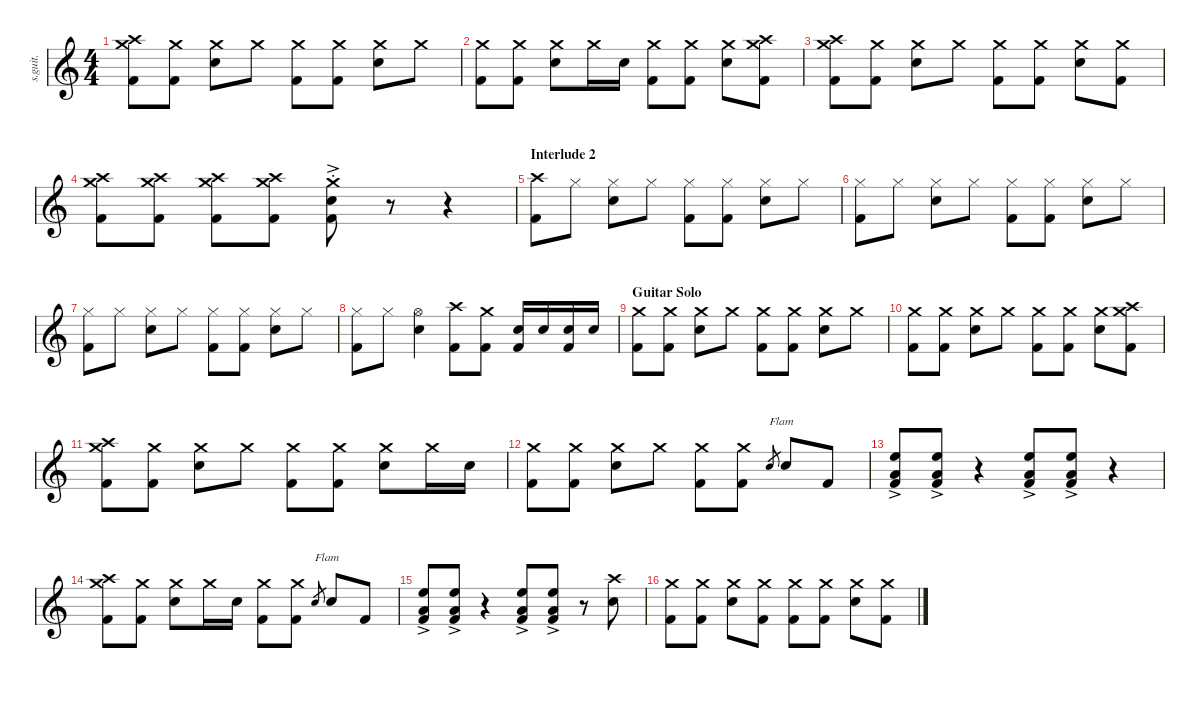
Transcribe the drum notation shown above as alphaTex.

\defaultSystemsLayout 4
\hideDynamics
\bracketExtendMode nobrackets
\track ("Tre Cool" "s.guit.") {instrument percussion}
\staff {score}
\articulation defaults
\ts (4 4)
\tempo (84 hide)
\clef g2
\ks c
("Crash medium (hit)" "Crash high (hit)" "Kick (hit) 2").8{lyrics (0 "") lyrics (1 "") lyrics (2 "") lyrics (3 "") lyrics (4 "") dy f} ("Crash medium (hit)" "Kick (hit) 2").8{lyrics (0 "") lyrics (1 "") lyrics (2 "") lyrics (3 "") lyrics (4 "")} ("Crash medium (hit)" "Snare (hit) 2").8{lyrics (0 "") lyrics (1 "") lyrics (2 "") lyrics (3 "") lyrics (4 "")} "Crash medium (hit)".8{lyrics (0 "") lyrics (1 "") lyrics (2 "") lyrics (3 "") lyrics (4 "")} ("Crash medium (hit)" "Kick (hit) 2").8{lyrics (0 "") lyrics (1 "") lyrics (2 "") lyrics (3 "") lyrics (4 "")} ("Crash medium (hit)" "Kick (hit) 2").8{lyrics (0 "") lyrics (1 "") lyrics (2 "") lyrics (3 "") lyrics (4 "")} ("Crash medium (hit)" "Snare (hit) 2").8{lyrics (0 "") lyrics (1 "") lyrics (2 "") lyrics (3 "") lyrics (4 "")} "Crash medium (hit)".8{lyrics (0 "") lyrics (1 "") lyrics (2 "") lyrics (3 "") lyrics (4 "")} |
("Crash medium (hit)" "Kick (hit) 2").8{lyrics (0 "") lyrics (1 "") lyrics (2 "") lyrics (3 "") lyrics (4 "")} ("Crash medium (hit)" "Kick (hit) 2").8{lyrics (0 "") lyrics (1 "") lyrics (2 "") lyrics (3 "") lyrics (4 "")} ("Crash medium (hit)" "Snare (hit) 2").8{lyrics (0 "") lyrics (1 "") lyrics (2 "") lyrics (3 "") lyrics (4 "")} "Crash medium (hit)".16{lyrics (0 "") lyrics (1 "") lyrics (2 "") lyrics (3 "") lyrics (4 "")} "Snare (hit) 2".16{lyrics (0 "") lyrics (1 "") lyrics (2 "") lyrics (3 "") lyrics (4 "")} ("Crash medium (hit)" "Kick (hit) 2").8{lyrics (0 "") lyrics (1 "") lyrics (2 "") lyrics (3 "") lyrics (4 "")} ("Crash medium (hit)" "Kick (hit) 2").8{lyrics (0 "") lyrics (1 "") lyrics (2 "") lyrics (3 "") lyrics (4 "")} ("Crash medium (hit)" "Snare (hit) 2").8{lyrics (0 "") lyrics (1 "") lyrics (2 "") lyrics (3 "") lyrics (4 "")} ("Crash medium (hit)" "Crash high (hit)" "Kick (hit) 2").8{lyrics (0 "") lyrics (1 "") lyrics (2 "") lyrics (3 "") lyrics (4 "")} |
("Crash medium (hit)" "Crash high (hit)" "Kick (hit) 2").8{lyrics (0 "") lyrics (1 "") lyrics (2 "") lyrics (3 "") lyrics (4 "")} ("Crash medium (hit)" "Kick (hit) 2").8{lyrics (0 "") lyrics (1 "") lyrics (2 "") lyrics (3 "") lyrics (4 "")} ("Crash medium (hit)" "Snare (hit) 2").8{lyrics (0 "") lyrics (1 "") lyrics (2 "") lyrics (3 "") lyrics (4 "")} "Crash medium (hit)".8{lyrics (0 "") lyrics (1 "") lyrics (2 "") lyrics (3 "") lyrics (4 "")} ("Crash medium (hit)" "Kick (hit) 2").8{lyrics (0 "") lyrics (1 "") lyrics (2 "") lyrics (3 "") lyrics (4 "")} ("Crash medium (hit)" "Kick (hit) 2").8{lyrics (0 "") lyrics (1 "") lyrics (2 "") lyrics (3 "") lyrics (4 "")} ("Crash medium (hit)" "Snare (hit) 2").8{lyrics (0 "") lyrics (1 "") lyrics (2 "") lyrics (3 "") lyrics (4 "")} ("Crash medium (hit)" "Kick (hit) 2").8{lyrics (0 "") lyrics (1 "") lyrics (2 "") lyrics (3 "") lyrics (4 "")} |
("Kick (hit) 2" "Crash medium (hit)" "Crash high (hit)").8{lyrics (0 "") lyrics (1 "") lyrics (2 "") lyrics (3 "") lyrics (4 "")} ("Kick (hit) 2" "Crash medium (hit)" "Crash high (hit)").8{lyrics (0 "") lyrics (1 "") lyrics (2 "") lyrics (3 "") lyrics (4 "")} ("Kick (hit) 2" "Crash medium (hit)" "Crash high (hit)").8{lyrics (0 "") lyrics (1 "") lyrics (2 "") lyrics (3 "") lyrics (4 "")} ("Kick (hit) 2" "Crash medium (hit)" "Crash high (hit)").8{lyrics (0 "") lyrics (1 "") lyrics (2 "") lyrics (3 "") lyrics (4 "")} ("Snare (hit) 2" "Kick (hit) 2" "Crash medium (hit)"{ac st}).8{lyrics (0 "") lyrics (1 "") lyrics (2 "") lyrics (3 "") lyrics (4 "")} r.8 r.4 |
\section ("" "Interlude 2")
("Crash high (hit)" "Kick (hit) 2").8{lyrics (0 "") lyrics (1 "") lyrics (2 "") lyrics (3 "") lyrics (4 "")} "Hi-Hat (closed)".8{lyrics (0 "") lyrics (1 "") lyrics (2 "") lyrics (3 "") lyrics (4 "")} ("Hi-Hat (closed)" "Snare (hit) 2").8{lyrics (0 "") lyrics (1 "") lyrics (2 "") lyrics (3 "") lyrics (4 "")} "Hi-Hat (closed)".8{lyrics (0 "") lyrics (1 "") lyrics (2 "") lyrics (3 "") lyrics (4 "")} ("Hi-Hat (closed)" "Kick (hit) 2").8{lyrics (0 "") lyrics (1 "") lyrics (2 "") lyrics (3 "") lyrics (4 "")} ("Hi-Hat (closed)" "Kick (hit) 2").8{lyrics (0 "") lyrics (1 "") lyrics (2 "") lyrics (3 "") lyrics (4 "")} ("Hi-Hat (closed)" "Snare (hit) 2").8{lyrics (0 "") lyrics (1 "") lyrics (2 "") lyrics (3 "") lyrics (4 "")} "Hi-Hat (closed)".8{lyrics (0 "") lyrics (1 "") lyrics (2 "") lyrics (3 "") lyrics (4 "")} |
("Hi-Hat (closed)" "Kick (hit) 2").8{lyrics (0 "") lyrics (1 "") lyrics (2 "") lyrics (3 "") lyrics (4 "")} "Hi-Hat (closed)".8{lyrics (0 "") lyrics (1 "") lyrics (2 "") lyrics (3 "") lyrics (4 "")} ("Hi-Hat (closed)" "Snare (hit) 2").8{lyrics (0 "") lyrics (1 "") lyrics (2 "") lyrics (3 "") lyrics (4 "")} "Hi-Hat (closed)".8{lyrics (0 "") lyrics (1 "") lyrics (2 "") lyrics (3 "") lyrics (4 "")} ("Hi-Hat (closed)" "Kick (hit) 2").8{lyrics (0 "") lyrics (1 "") lyrics (2 "") lyrics (3 "") lyrics (4 "")} ("Hi-Hat (closed)" "Kick (hit) 2").8{lyrics (0 "") lyrics (1 "") lyrics (2 "") lyrics (3 "") lyrics (4 "")} ("Hi-Hat (closed)" "Snare (hit) 2").8{lyrics (0 "") lyrics (1 "") lyrics (2 "") lyrics (3 "") lyrics (4 "")} "Hi-Hat (closed)".8{lyrics (0 "") lyrics (1 "") lyrics (2 "") lyrics (3 "") lyrics (4 "")} |
("Hi-Hat (closed)" "Kick (hit) 2").8{lyrics (0 "") lyrics (1 "") lyrics (2 "") lyrics (3 "") lyrics (4 "")} "Hi-Hat (closed)".8{lyrics (0 "") lyrics (1 "") lyrics (2 "") lyrics (3 "") lyrics (4 "")} ("Hi-Hat (closed)" "Snare (hit) 2").8{lyrics (0 "") lyrics (1 "") lyrics (2 "") lyrics (3 "") lyrics (4 "")} "Hi-Hat (closed)".8{lyrics (0 "") lyrics (1 "") lyrics (2 "") lyrics (3 "") lyrics (4 "")} ("Hi-Hat (closed)" "Kick (hit) 2").8{lyrics (0 "") lyrics (1 "") lyrics (2 "") lyrics (3 "") lyrics (4 "")} ("Hi-Hat (closed)" "Kick (hit) 2").8{lyrics (0 "") lyrics (1 "") lyrics (2 "") lyrics (3 "") lyrics (4 "")} ("Hi-Hat (closed)" "Snare (hit) 2").8{lyrics (0 "") lyrics (1 "") lyrics (2 "") lyrics (3 "") lyrics (4 "")} "Hi-Hat (closed)".8{lyrics (0 "") lyrics (1 "") lyrics (2 "") lyrics (3 "") lyrics (4 "")} |
("Hi-Hat (closed)" "Kick (hit) 2").8{lyrics (0 "") lyrics (1 "") lyrics (2 "") lyrics (3 "") lyrics (4 "")} "Hi-Hat (closed)".8{lyrics (0 "") lyrics (1 "") lyrics (2 "") lyrics (3 "") lyrics (4 "")} ("Hi-Hat (open)" "Snare (hit) 2").4{lyrics (0 "") lyrics (1 "") lyrics (2 "") lyrics (3 "") lyrics (4 "")} ("Crash high (hit)" "Kick (hit) 2").8{lyrics (0 "") lyrics (1 "") lyrics (2 "") lyrics (3 "") lyrics (4 "")} ("Crash medium (hit)" "Kick (hit) 2").8{lyrics (0 "") lyrics (1 "") lyrics (2 "") lyrics (3 "") lyrics (4 "")} ("Snare (hit) 2" "Kick (hit) 2").16{lyrics (0 "") lyrics (1 "") lyrics (2 "") lyrics (3 "") lyrics (4 "")} "Snare (hit) 2".16{lyrics (0 "") lyrics (1 "") lyrics (2 "") lyrics (3 "") lyrics (4 "")} ("Snare (hit) 2" "Kick (hit) 2").16{lyrics (0 "") lyrics (1 "") lyrics (2 "") lyrics (3 "") lyrics (4 "")} "Snare (hit) 2".16{lyrics (0 "") lyrics (1 "") lyrics (2 "") lyrics (3 "") lyrics (4 "")} |
\section ("" "Guitar Solo")
("Crash medium (hit)" "Kick (hit) 2").8{lyrics (0 "") lyrics (1 "") lyrics (2 "") lyrics (3 "") lyrics (4 "")} ("Crash medium (hit)" "Kick (hit) 2").8{lyrics (0 "") lyrics (1 "") lyrics (2 "") lyrics (3 "") lyrics (4 "")} ("Crash medium (hit)" "Snare (hit) 2").8{lyrics (0 "") lyrics (1 "") lyrics (2 "") lyrics (3 "") lyrics (4 "")} "Crash medium (hit)".8{lyrics (0 "") lyrics (1 "") lyrics (2 "") lyrics (3 "") lyrics (4 "")} ("Crash medium (hit)" "Kick (hit) 2").8{lyrics (0 "") lyrics (1 "") lyrics (2 "") lyrics (3 "") lyrics (4 "")} ("Crash medium (hit)" "Kick (hit) 2").8{lyrics (0 "") lyrics (1 "") lyrics (2 "") lyrics (3 "") lyrics (4 "")} ("Crash medium (hit)" "Snare (hit) 2").8{lyrics (0 "") lyrics (1 "") lyrics (2 "") lyrics (3 "") lyrics (4 "")} "Crash medium (hit)".8{lyrics (0 "") lyrics (1 "") lyrics (2 "") lyrics (3 "") lyrics (4 "")} |
("Crash medium (hit)" "Kick (hit) 2").8{lyrics (0 "") lyrics (1 "") lyrics (2 "") lyrics (3 "") lyrics (4 "")} ("Crash medium (hit)" "Kick (hit) 2").8{lyrics (0 "") lyrics (1 "") lyrics (2 "") lyrics (3 "") lyrics (4 "")} ("Crash medium (hit)" "Snare (hit) 2").8{lyrics (0 "") lyrics (1 "") lyrics (2 "") lyrics (3 "") lyrics (4 "")} "Crash medium (hit)".8{lyrics (0 "") lyrics (1 "") lyrics (2 "") lyrics (3 "") lyrics (4 "")} ("Crash medium (hit)" "Kick (hit) 2").8{lyrics (0 "") lyrics (1 "") lyrics (2 "") lyrics (3 "") lyrics (4 "")} ("Crash medium (hit)" "Kick (hit) 2").8{lyrics (0 "") lyrics (1 "") lyrics (2 "") lyrics (3 "") lyrics (4 "")} ("Crash medium (hit)" "Snare (hit) 2").8{lyrics (0 "") lyrics (1 "") lyrics (2 "") lyrics (3 "") lyrics (4 "")} ("Crash medium (hit)" "Crash high (hit)" "Kick (hit) 2").8{lyrics (0 "") lyrics (1 "") lyrics (2 "") lyrics (3 "") lyrics (4 "")} |
("Crash medium (hit)" "Crash high (hit)" "Kick (hit) 2").8{lyrics (0 "") lyrics (1 "") lyrics (2 "") lyrics (3 "") lyrics (4 "")} ("Crash medium (hit)" "Kick (hit) 2").8{lyrics (0 "") lyrics (1 "") lyrics (2 "") lyrics (3 "") lyrics (4 "")} ("Crash medium (hit)" "Snare (hit) 2").8{lyrics (0 "") lyrics (1 "") lyrics (2 "") lyrics (3 "") lyrics (4 "")} "Crash medium (hit)".8{lyrics (0 "") lyrics (1 "") lyrics (2 "") lyrics (3 "") lyrics (4 "")} ("Crash medium (hit)" "Kick (hit) 2").8{lyrics (0 "") lyrics (1 "") lyrics (2 "") lyrics (3 "") lyrics (4 "")} ("Crash medium (hit)" "Kick (hit) 2").8{lyrics (0 "") lyrics (1 "") lyrics (2 "") lyrics (3 "") lyrics (4 "")} ("Crash medium (hit)" "Snare (hit) 2").8{lyrics (0 "") lyrics (1 "") lyrics (2 "") lyrics (3 "") lyrics (4 "")} "Crash medium (hit)".16{lyrics (0 "") lyrics (1 "") lyrics (2 "") lyrics (3 "") lyrics (4 "")} "Snare (hit) 2".16{lyrics (0 "") lyrics (1 "") lyrics (2 "") lyrics (3 "") lyrics (4 "")} |
("Crash medium (hit)" "Kick (hit) 2").8{lyrics (0 "") lyrics (1 "") lyrics (2 "") lyrics (3 "") lyrics (4 "")} ("Crash medium (hit)" "Kick (hit) 2").8{lyrics (0 "") lyrics (1 "") lyrics (2 "") lyrics (3 "") lyrics (4 "")} ("Crash medium (hit)" "Snare (hit) 2").8{lyrics (0 "") lyrics (1 "") lyrics (2 "") lyrics (3 "") lyrics (4 "")} "Crash medium (hit)".8{lyrics (0 "") lyrics (1 "") lyrics (2 "") lyrics (3 "") lyrics (4 "")} ("Crash medium (hit)" "Kick (hit) 2").8{lyrics (0 "") lyrics (1 "") lyrics (2 "") lyrics (3 "") lyrics (4 "")} ("Crash medium (hit)" "Kick (hit) 2").8{lyrics (0 "") lyrics (1 "") lyrics (2 "") lyrics (3 "") lyrics (4 "")} "Electric Snare (hit)".8{txt "Flam" lyrics (0 "") lyrics (1 "") lyrics (2 "") lyrics (3 "") lyrics (4 "") gr} "Snare (hit) 2".8{lyrics (0 "") lyrics (1 "") lyrics (2 "") lyrics (3 "") lyrics (4 "")} "Kick (hit) 2".8{lyrics (0 "") lyrics (1 "") lyrics (2 "") lyrics (3 "") lyrics (4 "")} |
("High Floor Tom (hit)"{ac} "Low Tom (hit)"{ac} "Kick (hit) 2"{ac}).8{lyrics (0 "") lyrics (1 "") lyrics (2 "") lyrics (3 "") lyrics (4 "")} ("High Floor Tom (hit)"{ac} "Low Tom (hit)"{ac} "Kick (hit) 2"{ac}).8{lyrics (0 "") lyrics (1 "") lyrics (2 "") lyrics (3 "") lyrics (4 "")} r.4 ("High Floor Tom (hit)"{ac} "Low Tom (hit)"{ac} "Kick (hit) 2"{ac}).8{lyrics (0 "") lyrics (1 "") lyrics (2 "") lyrics (3 "") lyrics (4 "")} ("High Floor Tom (hit)"{ac} "Low Tom (hit)"{ac} "Kick (hit) 2"{ac}).8{lyrics (0 "") lyrics (1 "") lyrics (2 "") lyrics (3 "") lyrics (4 "")} r.4 |
("Crash medium (hit)" "Kick (hit) 2" "Crash high (hit)").8{lyrics (0 "") lyrics (1 "") lyrics (2 "") lyrics (3 "") lyrics (4 "")} ("Crash medium (hit)" "Kick (hit) 2").8{lyrics (0 "") lyrics (1 "") lyrics (2 "") lyrics (3 "") lyrics (4 "")} ("Crash medium (hit)" "Snare (hit) 2").8{lyrics (0 "") lyrics (1 "") lyrics (2 "") lyrics (3 "") lyrics (4 "")} "Crash medium (hit)".16{lyrics (0 "") lyrics (1 "") lyrics (2 "") lyrics (3 "") lyrics (4 "")} "Snare (hit) 2".16{lyrics (0 "") lyrics (1 "") lyrics (2 "") lyrics (3 "") lyrics (4 "")} ("Crash medium (hit)" "Kick (hit) 2").8{lyrics (0 "") lyrics (1 "") lyrics (2 "") lyrics (3 "") lyrics (4 "")} ("Crash medium (hit)" "Kick (hit) 2").8{lyrics (0 "") lyrics (1 "") lyrics (2 "") lyrics (3 "") lyrics (4 "")} "Electric Snare (hit)".8{txt "Flam" lyrics (0 "") lyrics (1 "") lyrics (2 "") lyrics (3 "") lyrics (4 "") gr} "Snare (hit) 2".8{lyrics (0 "") lyrics (1 "") lyrics (2 "") lyrics (3 "") lyrics (4 "")} "Kick (hit) 2".8{lyrics (0 "") lyrics (1 "") lyrics (2 "") lyrics (3 "") lyrics (4 "")} |
("High Floor Tom (hit)"{ac} "Low Tom (hit)"{ac} "Kick (hit) 2"{ac}).8{lyrics (0 "") lyrics (1 "") lyrics (2 "") lyrics (3 "") lyrics (4 "")} ("High Floor Tom (hit)"{ac} "Low Tom (hit)"{ac} "Kick (hit) 2"{ac}).8{lyrics (0 "") lyrics (1 "") lyrics (2 "") lyrics (3 "") lyrics (4 "")} r.4 ("High Floor Tom (hit)"{ac} "Low Tom (hit)"{ac} "Kick (hit) 2"{ac}).8{lyrics (0 "") lyrics (1 "") lyrics (2 "") lyrics (3 "") lyrics (4 "")} ("High Floor Tom (hit)"{ac} "Low Tom (hit)"{ac} "Kick (hit) 2"{ac}).8{lyrics (0 "") lyrics (1 "") lyrics (2 "") lyrics (3 "") lyrics (4 "")} r.8 ("Crash high (hit)" "Snare (hit) 2").8{lyrics (0 "") lyrics (1 "") lyrics (2 "") lyrics (3 "") lyrics (4 "")} |
("Crash medium (hit)" "Kick (hit) 2").8{lyrics (0 "") lyrics (1 "") lyrics (2 "") lyrics (3 "") lyrics (4 "")} ("Crash medium (hit)" "Kick (hit) 2").8{lyrics (0 "") lyrics (1 "") lyrics (2 "") lyrics (3 "") lyrics (4 "")} ("Crash medium (hit)" "Snare (hit) 2").8{lyrics (0 "") lyrics (1 "") lyrics (2 "") lyrics (3 "") lyrics (4 "")} ("Crash medium (hit)" "Kick (hit) 2").8{lyrics (0 "") lyrics (1 "") lyrics (2 "") lyrics (3 "") lyrics (4 "")} ("Crash medium (hit)" "Kick (hit) 2").8{lyrics (0 "") lyrics (1 "") lyrics (2 "") lyrics (3 "") lyrics (4 "")} ("Crash medium (hit)" "Kick (hit) 2").8{lyrics (0 "") lyrics (1 "") lyrics (2 "") lyrics (3 "") lyrics (4 "")} ("Crash medium (hit)" "Snare (hit) 2").8{lyrics (0 "") lyrics (1 "") lyrics (2 "") lyrics (3 "") lyrics (4 "")} ("Crash medium (hit)" "Kick (hit) 2").8{lyrics (0 "") lyrics (1 "") lyrics (2 "") lyrics (3 "") lyrics (4 "")}
